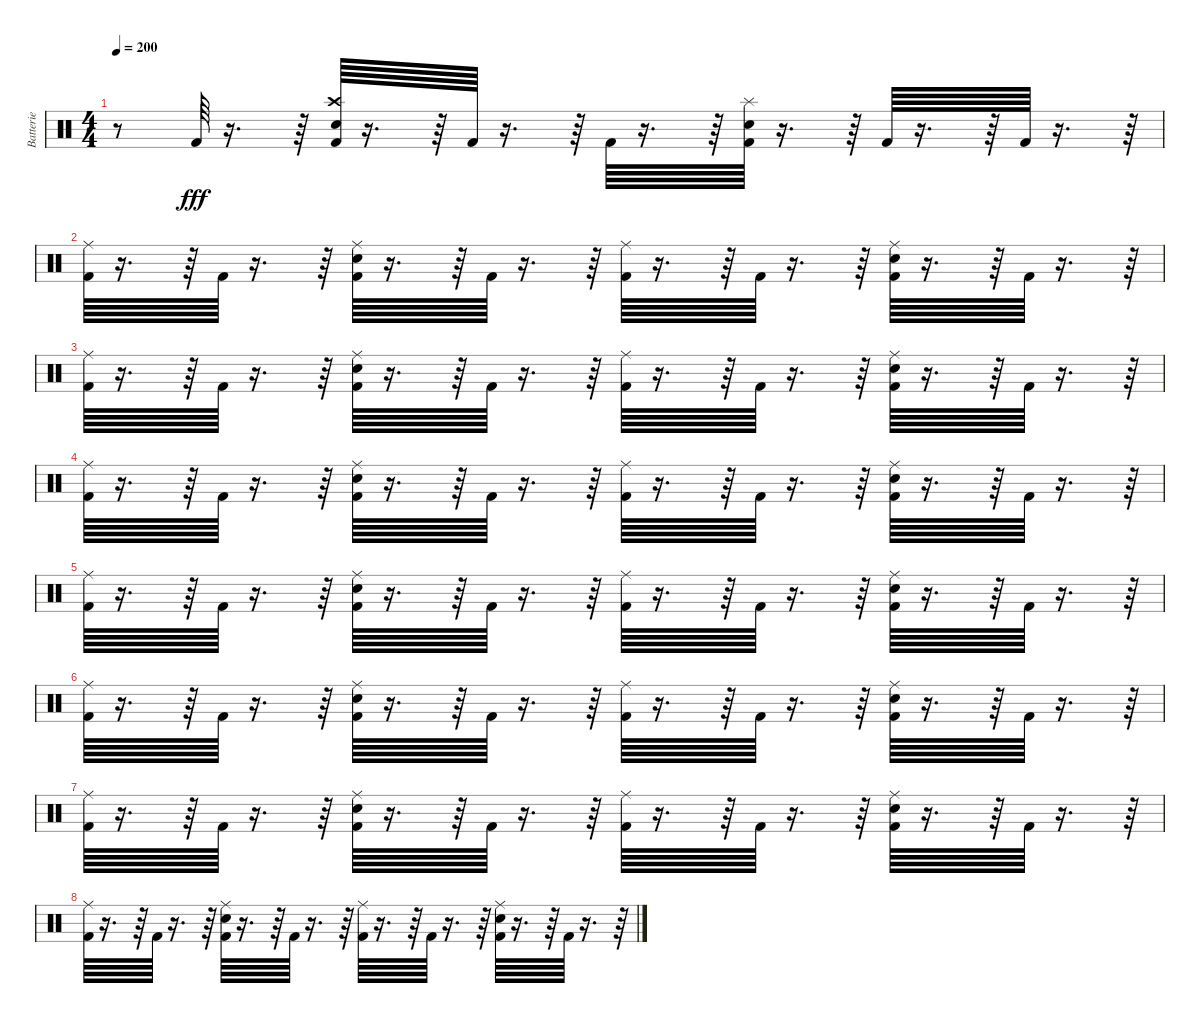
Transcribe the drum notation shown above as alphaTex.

\track ("Batterie" "Batterie") {instrument percussion}
\staff {score}
\articulation defaults
\ts (4 4)
\tempo 200
\clef neutral
\ks c
r.8{dy fff} "Kick (hit) 2".64 r.16{d} r.64 ("Kick (hit) 2" "Crash high (hit)" "Snare (hit) 2").64 r.16{d} r.64 "Kick (hit) 2".64 r.16{d} r.64 "Kick (hit) 2".64 r.16{d} r.64 ("Splash (hit)" "Kick (hit) 2" "Snare (hit) 2").64 r.16{d} r.64 "Kick (hit) 2".64 r.16{d} r.64 "Kick (hit) 2".64 r.16{d} r.64 |
("Kick (hit) 2" "Ride (middle)").64 r.16{d} r.64 "Kick (hit) 2".64 r.16{d} r.64 ("Kick (hit) 2" "Snare (hit) 2" "Ride (middle)").64 r.16{d} r.64 "Kick (hit) 2".64 r.16{d} r.64 ("Kick (hit) 2" "Ride (middle)").64 r.16{d} r.64 "Kick (hit) 2".64 r.16{d} r.64 ("Kick (hit) 2" "Snare (hit) 2" "Ride (middle)").64 r.16{d} r.64 "Kick (hit) 2".64 r.16{d} r.64 |
("Kick (hit) 2" "Ride (middle)").64 r.16{d} r.64 "Kick (hit) 2".64 r.16{d} r.64 ("Kick (hit) 2" "Snare (hit) 2" "Ride (middle)").64 r.16{d} r.64 "Kick (hit) 2".64 r.16{d} r.64 ("Kick (hit) 2" "Ride (middle)").64 r.16{d} r.64 "Kick (hit) 2".64 r.16{d} r.64 ("Kick (hit) 2" "Snare (hit) 2" "Ride (middle)").64 r.16{d} r.64 "Kick (hit) 2".64 r.16{d} r.64 |
("Kick (hit) 2" "Ride (middle)").64 r.16{d} r.64 "Kick (hit) 2".64 r.16{d} r.64 ("Kick (hit) 2" "Snare (hit) 2" "Ride (middle)").64 r.16{d} r.64 "Kick (hit) 2".64 r.16{d} r.64 ("Kick (hit) 2" "Ride (middle)").64 r.16{d} r.64 "Kick (hit) 2".64 r.16{d} r.64 ("Kick (hit) 2" "Snare (hit) 2" "Ride (middle)").64 r.16{d} r.64 "Kick (hit) 2".64 r.16{d} r.64 |
("Kick (hit) 2" "Ride (middle)").64 r.16{d} r.64 "Kick (hit) 2".64 r.16{d} r.64 ("Kick (hit) 2" "Snare (hit) 2" "Ride (middle)").64 r.16{d} r.64 "Kick (hit) 2".64 r.16{d} r.64 ("Kick (hit) 2" "Ride (middle)").64 r.16{d} r.64 "Kick (hit) 2".64 r.16{d} r.64 ("Kick (hit) 2" "Snare (hit) 2" "Ride (middle)").64 r.16{d} r.64 "Kick (hit) 2".64 r.16{d} r.64 |
("Kick (hit) 2" "Ride (middle)").64 r.16{d} r.64 "Kick (hit) 2".64 r.16{d} r.64 ("Kick (hit) 2" "Snare (hit) 2" "Ride (middle)").64 r.16{d} r.64 "Kick (hit) 2".64 r.16{d} r.64 ("Kick (hit) 2" "Ride (middle)").64 r.16{d} r.64 "Kick (hit) 2".64 r.16{d} r.64 ("Kick (hit) 2" "Snare (hit) 2" "Ride (middle)").64 r.16{d} r.64 "Kick (hit) 2".64 r.16{d} r.64 |
("Kick (hit) 2" "Ride (middle)").64 r.16{d} r.64 "Kick (hit) 2".64 r.16{d} r.64 ("Kick (hit) 2" "Snare (hit) 2" "Ride (middle)").64 r.16{d} r.64 "Kick (hit) 2".64 r.16{d} r.64 ("Kick (hit) 2" "Ride (middle)").64 r.16{d} r.64 "Kick (hit) 2".64 r.16{d} r.64 ("Kick (hit) 2" "Snare (hit) 2" "Ride (middle)").64 r.16{d} r.64 "Kick (hit) 2".64 r.16{d} r.64 |
("Kick (hit) 2" "Ride (middle)").64 r.16{d} r.64 "Kick (hit) 2".64 r.16{d} r.64 ("Kick (hit) 2" "Snare (hit) 2" "Ride (middle)").64 r.16{d} r.64 "Kick (hit) 2".64 r.16{d} r.64 ("Kick (hit) 2" "Ride (middle)").64 r.16{d} r.64 "Kick (hit) 2".64 r.16{d} r.64 ("Kick (hit) 2" "Snare (hit) 2" "Ride (middle)").64 r.16{d} r.64 "Kick (hit) 2".64 r.16{d} r.64
